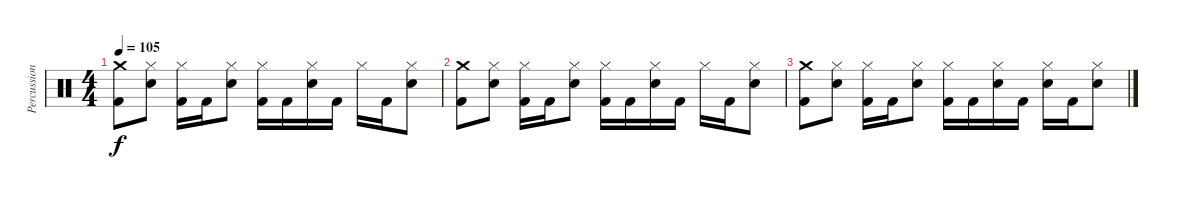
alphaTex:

\track ("Percussions" "Percussion") {instrument percussion}
\staff {score}
\articulation defaults
\ts (4 4)
\tempo 105
\clef neutral
\ks c
("Crash medium (hit)" "Kick (hit) 2").8{dy f} ("Hi-Hat (closed)" "Snare (hit) 2").8 ("Hi-Hat (closed)" "Kick (hit) 2").16 "Kick (hit) 2".16 ("Hi-Hat (closed)" "Snare (hit) 2").8 ("Hi-Hat (closed)" "Kick (hit) 2").16 "Kick (hit) 2".16 ("Hi-Hat (closed)" "Snare (hit) 2").16 "Kick (hit) 2".16 "Hi-Hat (closed)".16 "Kick (hit) 2".16 ("Hi-Hat (closed)" "Snare (hit) 2").8 |
("Crash medium (hit)" "Kick (hit) 2").8 ("Hi-Hat (closed)" "Snare (hit) 2").8 ("Hi-Hat (closed)" "Kick (hit) 2").16 "Kick (hit) 2".16 ("Hi-Hat (closed)" "Snare (hit) 2").8 ("Hi-Hat (closed)" "Kick (hit) 2").16 "Kick (hit) 2".16 ("Hi-Hat (closed)" "Snare (hit) 2").16 "Kick (hit) 2".16 "Hi-Hat (closed)".16 "Kick (hit) 2".16 ("Hi-Hat (closed)" "Snare (hit) 2").8 |
("Crash medium (hit)" "Kick (hit) 2").8 ("Hi-Hat (closed)" "Snare (hit) 2").8 ("Hi-Hat (closed)" "Kick (hit) 2").16 "Kick (hit) 2".16 ("Hi-Hat (closed)" "Snare (hit) 2").8 ("Hi-Hat (closed)" "Kick (hit) 2").16 "Kick (hit) 2".16 ("Hi-Hat (closed)" "Snare (hit) 2").16 "Kick (hit) 2".16 ("Hi-Hat (closed)" "Snare (hit) 2").16 "Kick (hit) 2".16 ("Hi-Hat (closed)" "Snare (hit) 2").8
